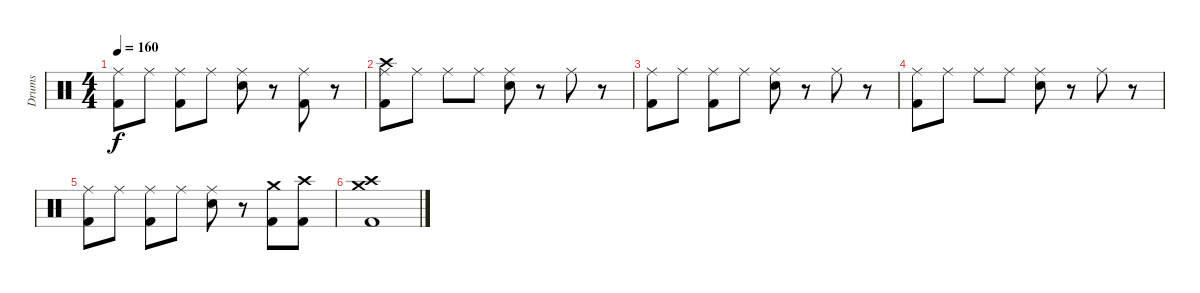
\track ("Drums" "Drums") {instrument percussion}
\staff {score}
\articulation defaults
\ts (4 4)
\tempo 160
\clef neutral
\ks c
("Ride (middle)" "Kick (hit) 2").8{dy f} "Ride (middle)".8 ("Ride (middle)" "Kick (hit) 2").8 "Ride (middle)".8 ("Ride (middle)" "Electric Snare (hit)").8 r.8 ("Ride (middle)" "Kick (hit) 2").8 r.8 |
("Crash high (hit)" "Ride (middle)" "Kick (hit) 2").8 "Ride (middle)".8 "Ride (middle)".8 "Ride (middle)".8 ("Ride (middle)" "Electric Snare (hit)").8 r.8 "Ride (middle)".8 r.8 |
("Ride (middle)" "Kick (hit) 2").8 "Ride (middle)".8 ("Ride (middle)" "Kick (hit) 2").8 "Ride (middle)".8 ("Ride (middle)" "Electric Snare (hit)").8 r.8 "Ride (middle)".8 r.8 |
("Ride (middle)" "Kick (hit) 2").8 "Ride (middle)".8 "Ride (middle)".8 "Ride (middle)".8 ("Ride (middle)" "Electric Snare (hit)").8 r.8 "Ride (middle)".8 r.8 |
("Ride (middle)" "Kick (hit) 2").8 "Ride (middle)".8 ("Ride (middle)" "Kick (hit) 2").8 "Ride (middle)".8 ("Ride (middle)" "Electric Snare (hit)").8 r.8 ("Crash medium (hit)" "Kick (hit) 2").8 ("Crash high (hit)" "Kick (hit) 2").8 |
("Crash high (hit)" "Crash medium (hit)" "Kick (hit) 2").1
